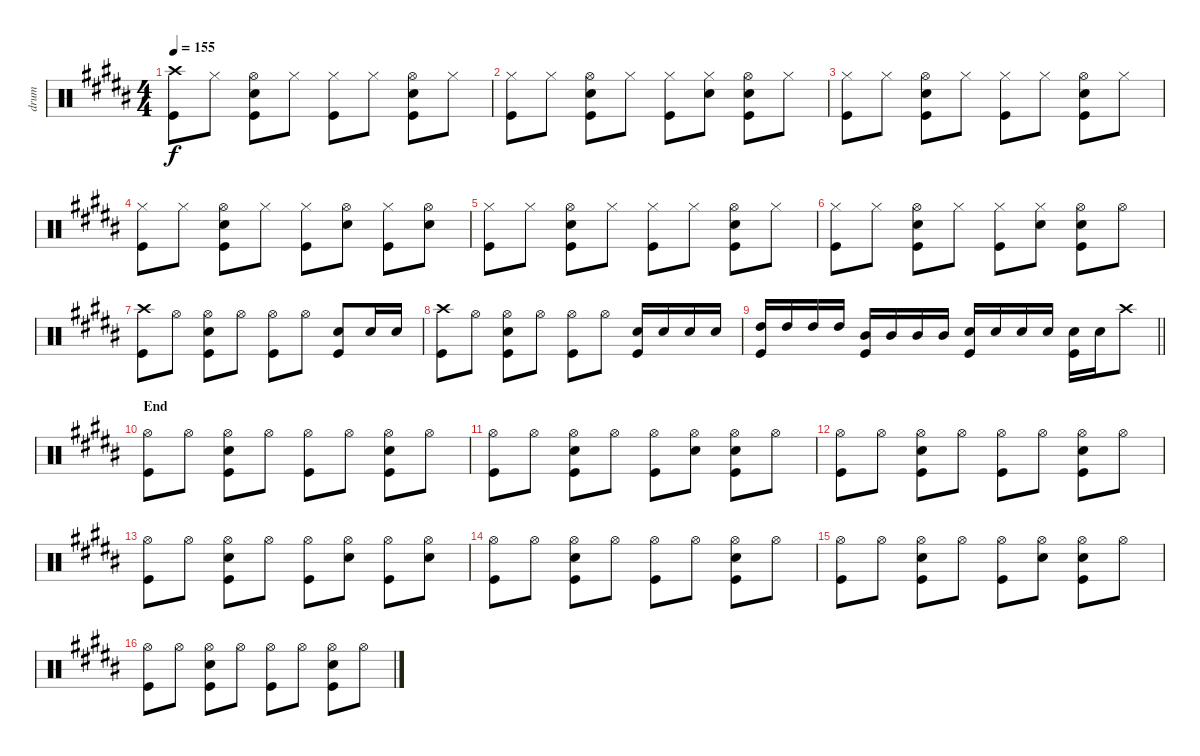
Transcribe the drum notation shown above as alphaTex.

\track ("drum" "drum") {instrument percussion}
\staff {score}
\articulation defaults
\ts (4 4)
\tempo 155
\clef neutral
\ks b
("Crash high (hit)" "Kick (hit)").8{dy f} "Hi-Hat (closed)".8 ("Hi-Hat (open)" "Snare (hit) 2" "Kick (hit)").8 "Hi-Hat (closed)".8 ("Hi-Hat (closed)" "Kick (hit)").8 "Hi-Hat (closed)".8 ("Hi-Hat (open)" "Snare (hit) 2" "Kick (hit)").8 "Hi-Hat (closed)".8 |
("Hi-Hat (closed)" "Kick (hit)").8 "Hi-Hat (closed)".8 ("Hi-Hat (open)" "Snare (hit) 2" "Kick (hit)").8 "Hi-Hat (closed)".8 ("Hi-Hat (closed)" "Kick (hit)").8 ("Hi-Hat (closed)" "Snare (hit) 2").8 ("Hi-Hat (open)" "Snare (hit) 2" "Kick (hit)").8 "Hi-Hat (closed)".8 |
("Hi-Hat (closed)" "Kick (hit)").8 "Hi-Hat (closed)".8 ("Hi-Hat (open)" "Snare (hit) 2" "Kick (hit)").8 "Hi-Hat (closed)".8 ("Hi-Hat (closed)" "Kick (hit)").8 "Hi-Hat (closed)".8 ("Hi-Hat (open)" "Snare (hit) 2" "Kick (hit)").8 "Hi-Hat (closed)".8 |
("Hi-Hat (closed)" "Kick (hit)").8 "Hi-Hat (closed)".8 ("Hi-Hat (open)" "Snare (hit) 2" "Kick (hit)").8 "Hi-Hat (closed)".8 ("Hi-Hat (closed)" "Kick (hit)").8 ("Hi-Hat (open)" "Snare (hit) 2").8 ("Hi-Hat (closed)" "Kick (hit)").8 ("Hi-Hat (open)" "Snare (hit) 2").8 |
("Hi-Hat (closed)" "Kick (hit)").8 "Hi-Hat (closed)".8 ("Hi-Hat (open)" "Snare (hit) 2" "Kick (hit)").8 "Hi-Hat (closed)".8 ("Hi-Hat (closed)" "Kick (hit)").8 "Hi-Hat (closed)".8 ("Hi-Hat (open)" "Snare (hit) 2" "Kick (hit)").8 "Hi-Hat (closed)".8 |
("Hi-Hat (closed)" "Kick (hit)").8 "Hi-Hat (closed)".8 ("Hi-Hat (open)" "Snare (hit) 2" "Kick (hit)").8 "Hi-Hat (closed)".8 ("Hi-Hat (closed)" "Kick (hit)").8 ("Hi-Hat (closed)" "Snare (hit) 2").8 ("Hi-Hat (open)" "Snare (hit) 2" "Kick (hit)").8 "Hi-Hat (open)".8 |
("Crash high (hit)" "Kick (hit)").8 "Hi-Hat (open)".8 ("Hi-Hat (open)" "Snare (hit) 2" "Kick (hit)").8 "Hi-Hat (open)".8 ("Hi-Hat (open)" "Kick (hit)").8 "Hi-Hat (open)".8 ("Snare (hit) 2" "Kick (hit)").8 "Snare (hit) 2".16 "Snare (hit) 2".16 |
("Crash high (hit)" "Kick (hit)").8 "Hi-Hat (open)".8 ("Hi-Hat (open)" "Snare (hit) 2" "Kick (hit)").8 "Hi-Hat (open)".8 ("Hi-Hat (open)" "Kick (hit)").8 "Hi-Hat (open)".8 ("Snare (hit) 2" "Kick (hit)").16 "Snare (hit) 2".16 "Snare (hit) 2".16 "Snare (hit) 2".16 |
\barLineRight lightlight
("High Tom (hit)" "Kick (hit)").16 "High Tom (hit)".16 "High Tom (hit)".16 "High Tom (hit)".16 ("Mid Tom (hit)" "Kick (hit)").16 "Mid Tom (hit)".16 "Mid Tom (hit)".16 "Mid Tom (hit)".16 ("Snare (hit) 2" "Kick (hit)").16 "Snare (hit) 2".16 "Snare (hit) 2".16 "Snare (hit) 2".16 ("Snare (hit) 2" "Kick (hit)").16 "Snare (hit) 2".16 "Crash high (hit)".8 |
\section ("" "End")
("Hi-Hat (open)" "Kick (hit)").8 "Hi-Hat (open)".8 ("Hi-Hat (open)" "Snare (hit) 2" "Kick (hit)").8 "Hi-Hat (open)".8 ("Hi-Hat (open)" "Kick (hit)").8 "Hi-Hat (open)".8 ("Hi-Hat (open)" "Snare (hit) 2" "Kick (hit)").8 "Hi-Hat (open)".8 |
("Hi-Hat (open)" "Kick (hit)").8 "Hi-Hat (open)".8 ("Hi-Hat (open)" "Snare (hit) 2" "Kick (hit)").8 "Hi-Hat (open)".8 ("Hi-Hat (open)" "Kick (hit)").8 ("Hi-Hat (open)" "Snare (hit) 2").8 ("Hi-Hat (open)" "Snare (hit) 2" "Kick (hit)").8 "Hi-Hat (open)".8 |
("Hi-Hat (open)" "Kick (hit)").8 "Hi-Hat (open)".8 ("Hi-Hat (open)" "Snare (hit) 2" "Kick (hit)").8 "Hi-Hat (open)".8 ("Hi-Hat (open)" "Kick (hit)").8 "Hi-Hat (open)".8 ("Hi-Hat (open)" "Snare (hit) 2" "Kick (hit)").8 "Hi-Hat (open)".8 |
("Hi-Hat (open)" "Kick (hit)").8 "Hi-Hat (open)".8 ("Hi-Hat (open)" "Snare (hit) 2" "Kick (hit)").8 "Hi-Hat (open)".8 ("Hi-Hat (open)" "Kick (hit)").8 ("Hi-Hat (open)" "Snare (hit) 2").8 ("Hi-Hat (open)" "Kick (hit)").8 ("Hi-Hat (open)" "Snare (hit) 2").8 |
("Hi-Hat (open)" "Kick (hit)").8 "Hi-Hat (open)".8 ("Hi-Hat (open)" "Snare (hit) 2" "Kick (hit)").8 "Hi-Hat (open)".8 ("Hi-Hat (open)" "Kick (hit)").8 "Hi-Hat (open)".8 ("Hi-Hat (open)" "Snare (hit) 2" "Kick (hit)").8 "Hi-Hat (open)".8 |
("Hi-Hat (open)" "Kick (hit)").8 "Hi-Hat (open)".8 ("Hi-Hat (open)" "Snare (hit) 2" "Kick (hit)").8 "Hi-Hat (open)".8 ("Hi-Hat (open)" "Kick (hit)").8 ("Hi-Hat (open)" "Snare (hit) 2").8 ("Hi-Hat (open)" "Snare (hit) 2" "Kick (hit)").8 "Hi-Hat (open)".8 |
("Hi-Hat (open)" "Kick (hit)").8 "Hi-Hat (open)".8 ("Hi-Hat (open)" "Snare (hit) 2" "Kick (hit)").8 "Hi-Hat (open)".8 ("Hi-Hat (open)" "Kick (hit)").8 "Hi-Hat (open)".8 ("Hi-Hat (open)" "Snare (hit) 2" "Kick (hit)").8 "Hi-Hat (open)".8
